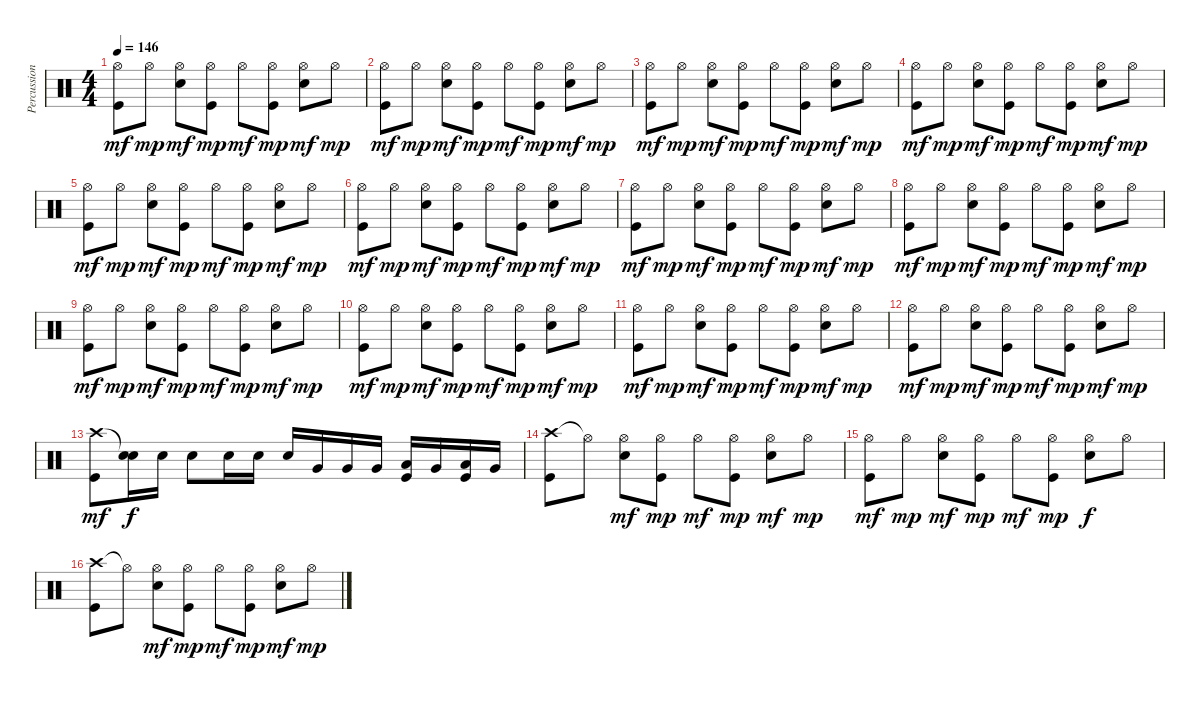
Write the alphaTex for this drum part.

\track ("Percussion" "Percussion") {instrument percussion}
\staff {score}
\articulation defaults
\ts (4 4)
\tempo 146
\clef neutral
\ks c
("Hi-Hat (open)" "Kick (hit)").8{dy mf} "Hi-Hat (open)".8{dy mp} ("Hi-Hat (open)" "Snare (hit) 2").8{dy mf} ("Hi-Hat (open)" "Kick (hit)").8{dy mp} "Hi-Hat (open)".8{dy mf} ("Hi-Hat (open)" "Kick (hit)").8{dy mp} ("Hi-Hat (open)" "Snare (hit) 2").8{dy mf} "Hi-Hat (open)".8{dy mp} |
("Hi-Hat (open)" "Kick (hit)").8{dy mf} "Hi-Hat (open)".8{dy mp} ("Hi-Hat (open)" "Snare (hit) 2").8{dy mf} ("Hi-Hat (open)" "Kick (hit)").8{dy mp} "Hi-Hat (open)".8{dy mf} ("Hi-Hat (open)" "Kick (hit)").8{dy mp} ("Hi-Hat (open)" "Snare (hit) 2").8{dy mf} "Hi-Hat (open)".8{dy mp} |
("Hi-Hat (open)" "Kick (hit)").8{dy mf} "Hi-Hat (open)".8{dy mp} ("Hi-Hat (open)" "Snare (hit) 2").8{dy mf} ("Hi-Hat (open)" "Kick (hit)").8{dy mp} "Hi-Hat (open)".8{dy mf} ("Hi-Hat (open)" "Kick (hit)").8{dy mp} ("Hi-Hat (open)" "Snare (hit) 2").8{dy mf} "Hi-Hat (open)".8{dy mp} |
("Hi-Hat (open)" "Kick (hit)").8{dy mf} "Hi-Hat (open)".8{dy mp} ("Hi-Hat (open)" "Snare (hit) 2").8{dy mf} ("Hi-Hat (open)" "Kick (hit)").8{dy mp} "Hi-Hat (open)".8{dy mf} ("Hi-Hat (open)" "Kick (hit)").8{dy mp} ("Hi-Hat (open)" "Snare (hit) 2").8{dy mf} "Hi-Hat (open)".8{dy mp} |
("Hi-Hat (open)" "Kick (hit)").8{dy mf} "Hi-Hat (open)".8{dy mp} ("Hi-Hat (open)" "Snare (hit) 2").8{dy mf} ("Hi-Hat (open)" "Kick (hit)").8{dy mp} "Hi-Hat (open)".8{dy mf} ("Hi-Hat (open)" "Kick (hit)").8{dy mp} ("Hi-Hat (open)" "Snare (hit) 2").8{dy mf} "Hi-Hat (open)".8{dy mp} |
("Hi-Hat (open)" "Kick (hit)").8{dy mf} "Hi-Hat (open)".8{dy mp} ("Hi-Hat (open)" "Snare (hit) 2").8{dy mf} ("Hi-Hat (open)" "Kick (hit)").8{dy mp} "Hi-Hat (open)".8{dy mf} ("Hi-Hat (open)" "Kick (hit)").8{dy mp} ("Hi-Hat (open)" "Snare (hit) 2").8{dy mf} "Hi-Hat (open)".8{dy mp} |
("Hi-Hat (open)" "Kick (hit)").8{dy mf} "Hi-Hat (open)".8{dy mp} ("Hi-Hat (open)" "Snare (hit) 2").8{dy mf} ("Hi-Hat (open)" "Kick (hit)").8{dy mp} "Hi-Hat (open)".8{dy mf} ("Hi-Hat (open)" "Kick (hit)").8{dy mp} ("Hi-Hat (open)" "Snare (hit) 2").8{dy mf} "Hi-Hat (open)".8{dy mp} |
("Hi-Hat (open)" "Kick (hit)").8{dy mf} "Hi-Hat (open)".8{dy mp} ("Hi-Hat (open)" "Snare (hit) 2").8{dy mf} ("Hi-Hat (open)" "Kick (hit)").8{dy mp} "Hi-Hat (open)".8{dy mf} ("Hi-Hat (open)" "Kick (hit)").8{dy mp} ("Hi-Hat (open)" "Snare (hit) 2").8{dy mf} "Hi-Hat (open)".8{dy mp} |
("Hi-Hat (open)" "Kick (hit)").8{dy mf} "Hi-Hat (open)".8{dy mp} ("Hi-Hat (open)" "Snare (hit) 2").8{dy mf} ("Hi-Hat (open)" "Kick (hit)").8{dy mp} "Hi-Hat (open)".8{dy mf} ("Hi-Hat (open)" "Kick (hit)").8{dy mp} ("Hi-Hat (open)" "Snare (hit) 2").8{dy mf} "Hi-Hat (open)".8{dy mp} |
("Hi-Hat (open)" "Kick (hit)").8{dy mf} "Hi-Hat (open)".8{dy mp} ("Hi-Hat (open)" "Snare (hit) 2").8{dy mf} ("Hi-Hat (open)" "Kick (hit)").8{dy mp} "Hi-Hat (open)".8{dy mf} ("Hi-Hat (open)" "Kick (hit)").8{dy mp} ("Hi-Hat (open)" "Snare (hit) 2").8{dy mf} "Hi-Hat (open)".8{dy mp} |
("Hi-Hat (open)" "Kick (hit)").8{dy mf} "Hi-Hat (open)".8{dy mp} ("Hi-Hat (open)" "Snare (hit) 2").8{dy mf} ("Hi-Hat (open)" "Kick (hit)").8{dy mp} "Hi-Hat (open)".8{dy mf} ("Hi-Hat (open)" "Kick (hit)").8{dy mp} ("Hi-Hat (open)" "Snare (hit) 2").8{dy mf} "Hi-Hat (open)".8{dy mp} |
("Hi-Hat (open)" "Kick (hit)").8{dy mf} "Hi-Hat (open)".8{dy mp} ("Hi-Hat (open)" "Snare (hit) 2").8{dy mf} ("Hi-Hat (open)" "Kick (hit)").8{dy mp} "Hi-Hat (open)".8{dy mf} ("Hi-Hat (open)" "Kick (hit)").8{dy mp} ("Hi-Hat (open)" "Snare (hit) 2").8{dy mf} "Hi-Hat (open)".8{dy mp} |
("Crash high (hit)" "Kick (hit)").8{dy mf} ("Snare (hit)"{t} "Snare (hit) 2").16{dy f} "Snare (hit) 2".16 "Snare (hit) 2".8 "Snare (hit) 2".16 "Snare (hit) 2".16 "Snare (hit) 2".16 "Very Low Tom (hit)".16 "Very Low Tom (hit)".16 "Very Low Tom (hit)".16 ("Low Floor Tom (hit)" "Kick (hit)").16 "Very Low Tom (hit)".16 ("Low Floor Tom (hit)" "Kick (hit)").16 "Very Low Tom (hit)".16 |
("Crash high (hit)" "Kick (hit)").8 "Hi-Hat (open)"{t}.8 ("Hi-Hat (open)" "Snare (hit) 2").8{dy mf} ("Hi-Hat (open)" "Kick (hit)").8{dy mp} "Hi-Hat (open)".8{dy mf} ("Hi-Hat (open)" "Kick (hit)").8{dy mp} ("Hi-Hat (open)" "Snare (hit) 2").8{dy mf} "Hi-Hat (open)".8{dy mp} |
("Hi-Hat (open)" "Kick (hit)").8{dy mf} "Hi-Hat (open)".8{dy mp} ("Hi-Hat (open)" "Snare (hit) 2").8{dy mf} ("Hi-Hat (open)" "Kick (hit)").8{dy mp} "Hi-Hat (open)".8{dy mf} ("Hi-Hat (open)" "Kick (hit)").8{dy mp} ("Hi-Hat (open)" "Snare (hit) 2").8{dy f} "Hi-Hat (open)".8 |
("Crash high (hit)" "Kick (hit)").8 "Hi-Hat (open)"{t}.8 ("Hi-Hat (open)" "Snare (hit) 2").8{dy mf} ("Hi-Hat (open)" "Kick (hit)").8{dy mp} "Hi-Hat (open)".8{dy mf} ("Hi-Hat (open)" "Kick (hit)").8{dy mp} ("Hi-Hat (open)" "Snare (hit) 2").8{dy mf} "Hi-Hat (open)".8{dy mp}
